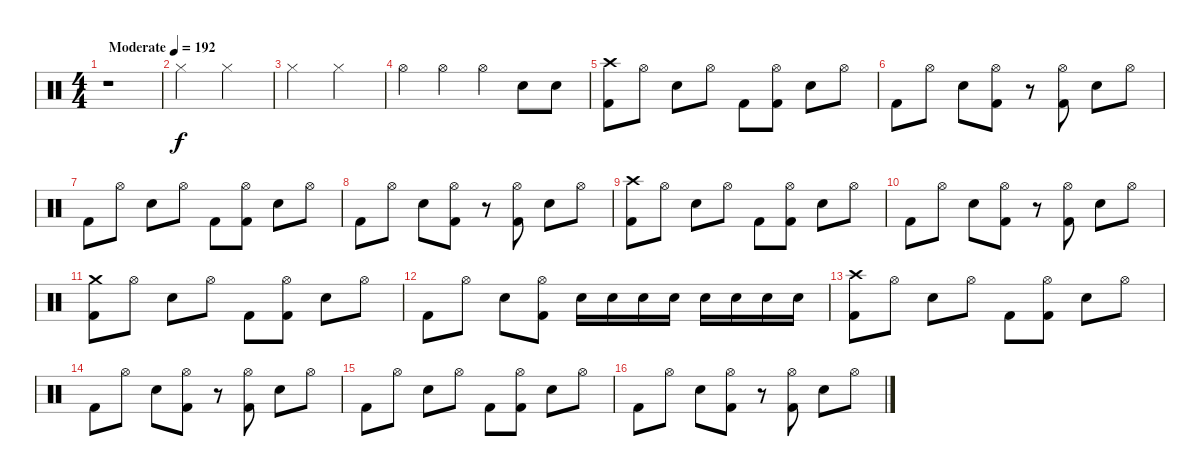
\track "" {instrument percussion}
\staff {score}
\articulation defaults
\ts (4 4)
\tempo (192 "Moderate")
\clef neutral
\ks c
r.1{dy f} |
"Hi-Hat (closed)".2 "Hi-Hat (closed)".2 |
"Hi-Hat (closed)".2 "Hi-Hat (closed)".2 |
"Hi-Hat (open)".4 "Hi-Hat (open)".4 "Hi-Hat (open)".4 "Snare (hit) 2".8 "Snare (hit) 2".8 |
("Crash high (hit)" "Kick (hit) 2").8 "Hi-Hat (open)".8 "Snare (hit) 2".8 "Hi-Hat (open)".8 "Kick (hit) 2".8 ("Hi-Hat (open)" "Kick (hit) 2").8 "Snare (hit) 2".8 "Hi-Hat (open)".8 |
"Kick (hit) 2".8 "Hi-Hat (open)".8 "Snare (hit) 2".8 ("Hi-Hat (open)" "Kick (hit) 2").8 r.8 ("Hi-Hat (open)" "Kick (hit) 2").8 "Snare (hit) 2".8 "Hi-Hat (open)".8 |
"Kick (hit) 2".8 "Hi-Hat (open)".8 "Snare (hit) 2".8 "Hi-Hat (open)".8 "Kick (hit) 2".8 ("Hi-Hat (open)" "Kick (hit) 2").8 "Snare (hit) 2".8 "Hi-Hat (open)".8 |
"Kick (hit) 2".8 "Hi-Hat (open)".8 "Snare (hit) 2".8 ("Hi-Hat (open)" "Kick (hit) 2").8 r.8 ("Hi-Hat (open)" "Kick (hit) 2").8 "Snare (hit) 2".8 "Hi-Hat (open)".8 |
("Crash high (hit)" "Kick (hit) 2").8 "Hi-Hat (open)".8 "Snare (hit) 2".8 "Hi-Hat (open)".8 "Kick (hit) 2".8 ("Hi-Hat (open)" "Kick (hit) 2").8 "Snare (hit) 2".8 "Hi-Hat (open)".8 |
"Kick (hit) 2".8 "Hi-Hat (open)".8 "Snare (hit) 2".8 ("Hi-Hat (open)" "Kick (hit) 2").8 r.8 ("Hi-Hat (open)" "Kick (hit) 2").8 "Snare (hit) 2".8 "Hi-Hat (open)".8 |
("Crash medium (hit)" "Kick (hit) 2").8 "Hi-Hat (open)".8 "Snare (hit) 2".8 "Hi-Hat (open)".8 "Kick (hit) 2".8 ("Hi-Hat (open)" "Kick (hit) 2").8 "Snare (hit) 2".8 "Hi-Hat (open)".8 |
"Kick (hit) 2".8 "Hi-Hat (open)".8 "Snare (hit) 2".8 ("Hi-Hat (open)" "Kick (hit) 2").8 "Electric Snare (hit)".16 "Electric Snare (hit)".16 "Electric Snare (hit)".16 "Electric Snare (hit)".16 "Snare (hit) 2".16 "Snare (hit) 2".16 "Snare (hit) 2".16 "Snare (hit) 2".16 |
("Crash high (hit)" "Kick (hit) 2").8 "Hi-Hat (open)".8 "Snare (hit) 2".8 "Hi-Hat (open)".8 "Kick (hit) 2".8 ("Hi-Hat (open)" "Kick (hit) 2").8 "Snare (hit) 2".8 "Hi-Hat (open)".8 |
"Kick (hit) 2".8 "Hi-Hat (open)".8 "Snare (hit) 2".8 ("Hi-Hat (open)" "Kick (hit) 2").8 r.8 ("Hi-Hat (open)" "Kick (hit) 2").8 "Snare (hit) 2".8 "Hi-Hat (open)".8 |
"Kick (hit) 2".8 "Hi-Hat (open)".8 "Snare (hit) 2".8 "Hi-Hat (open)".8 "Kick (hit) 2".8 ("Hi-Hat (open)" "Kick (hit) 2").8 "Snare (hit) 2".8 "Hi-Hat (open)".8 |
"Kick (hit) 2".8 "Hi-Hat (open)".8 "Snare (hit) 2".8 ("Hi-Hat (open)" "Kick (hit) 2").8 r.8 ("Hi-Hat (open)" "Kick (hit) 2").8 "Snare (hit) 2".8 "Hi-Hat (open)".8
